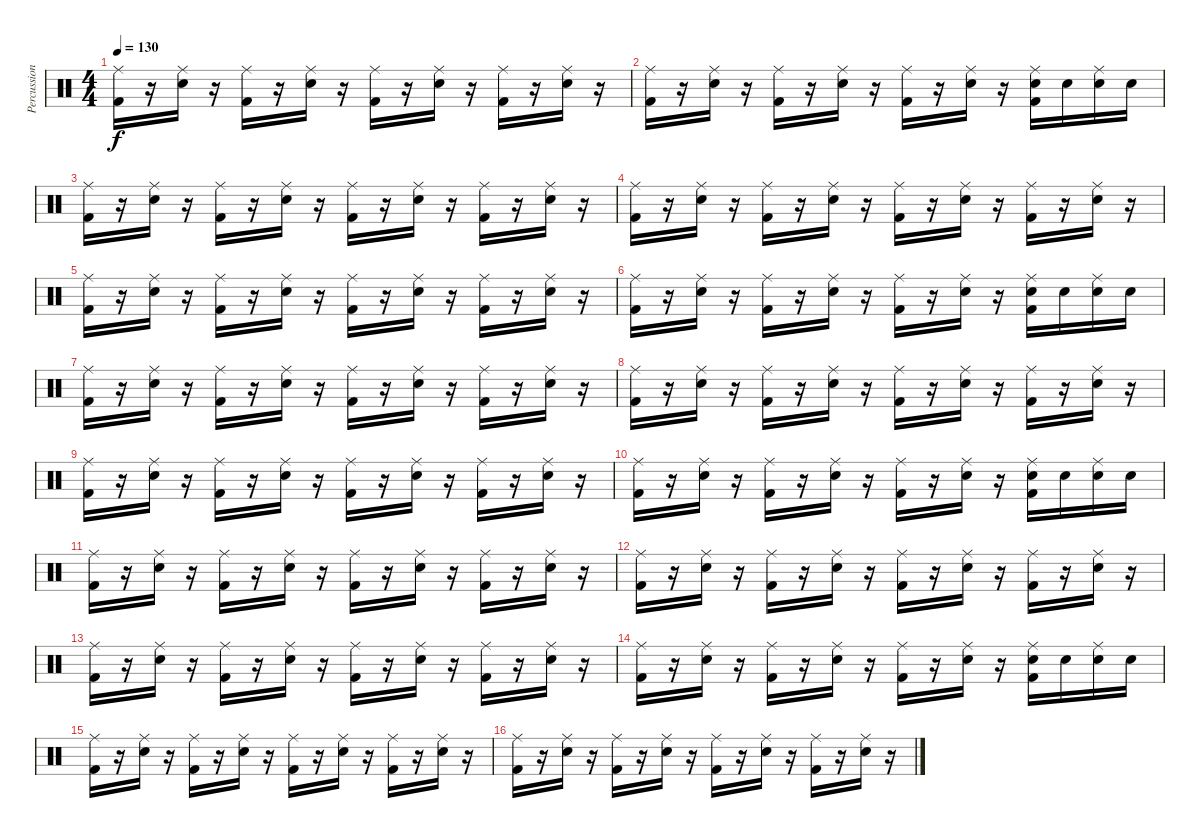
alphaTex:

\track ("Percussion" "Percussion") {instrument percussion}
\staff {score}
\articulation defaults
\ts (4 4)
\tempo 130
\clef neutral
\ks c
("Kick (hit) 2" "Ride (middle)").16{dy f} r.16 ("Snare (hit) 2" "Ride (middle)").16 r.16 ("Kick (hit) 2" "Ride (middle)").16 r.16 ("Snare (hit) 2" "Ride (middle)").16 r.16 ("Kick (hit) 2" "Ride (middle)").16 r.16 ("Snare (hit) 2" "Ride (middle)").16 r.16 ("Kick (hit) 2" "Ride (middle)").16 r.16 ("Snare (hit) 2" "Ride (middle)").16 r.16 |
("Kick (hit) 2" "Ride (middle)").16 r.16 ("Snare (hit) 2" "Ride (middle)").16 r.16 ("Kick (hit) 2" "Ride (middle)").16 r.16 ("Snare (hit) 2" "Ride (middle)").16 r.16 ("Kick (hit) 2" "Ride (middle)").16 r.16 ("Snare (hit) 2" "Ride (middle)").16 r.16 ("Kick (hit) 2" "Snare (hit) 2" "Ride (middle)").16 "Snare (hit) 2".16 ("Snare (hit) 2" "Ride (middle)").16 "Snare (hit) 2".16 |
("Kick (hit) 2" "Ride (middle)").16 r.16 ("Snare (hit) 2" "Ride (middle)").16 r.16 ("Kick (hit) 2" "Ride (middle)").16 r.16 ("Snare (hit) 2" "Ride (middle)").16 r.16 ("Kick (hit) 2" "Ride (middle)").16 r.16 ("Snare (hit) 2" "Ride (middle)").16 r.16 ("Kick (hit) 2" "Ride (middle)").16 r.16 ("Snare (hit) 2" "Ride (middle)").16 r.16 |
("Kick (hit) 2" "Ride (middle)").16 r.16 ("Snare (hit) 2" "Ride (middle)").16 r.16 ("Kick (hit) 2" "Ride (middle)").16 r.16 ("Snare (hit) 2" "Ride (middle)").16 r.16 ("Kick (hit) 2" "Ride (middle)").16 r.16 ("Snare (hit) 2" "Ride (middle)").16 r.16 ("Kick (hit) 2" "Ride (middle)").16 r.16 ("Snare (hit) 2" "Ride (middle)").16 r.16 |
("Kick (hit) 2" "Ride (middle)").16 r.16 ("Snare (hit) 2" "Ride (middle)").16 r.16 ("Kick (hit) 2" "Ride (middle)").16 r.16 ("Snare (hit) 2" "Ride (middle)").16 r.16 ("Kick (hit) 2" "Ride (middle)").16 r.16 ("Snare (hit) 2" "Ride (middle)").16 r.16 ("Kick (hit) 2" "Ride (middle)").16 r.16 ("Snare (hit) 2" "Ride (middle)").16 r.16 |
("Kick (hit) 2" "Ride (middle)").16 r.16 ("Snare (hit) 2" "Ride (middle)").16 r.16 ("Kick (hit) 2" "Ride (middle)").16 r.16 ("Snare (hit) 2" "Ride (middle)").16 r.16 ("Kick (hit) 2" "Ride (middle)").16 r.16 ("Snare (hit) 2" "Ride (middle)").16 r.16 ("Kick (hit) 2" "Snare (hit) 2" "Ride (middle)").16 "Snare (hit) 2".16 ("Snare (hit) 2" "Ride (middle)").16 "Snare (hit) 2".16 |
("Kick (hit) 2" "Ride (middle)").16 r.16 ("Snare (hit) 2" "Ride (middle)").16 r.16 ("Kick (hit) 2" "Ride (middle)").16 r.16 ("Snare (hit) 2" "Ride (middle)").16 r.16 ("Kick (hit) 2" "Ride (middle)").16 r.16 ("Snare (hit) 2" "Ride (middle)").16 r.16 ("Kick (hit) 2" "Ride (middle)").16 r.16 ("Snare (hit) 2" "Ride (middle)").16 r.16 |
("Kick (hit) 2" "Ride (middle)").16 r.16 ("Snare (hit) 2" "Ride (middle)").16 r.16 ("Kick (hit) 2" "Ride (middle)").16 r.16 ("Snare (hit) 2" "Ride (middle)").16 r.16 ("Kick (hit) 2" "Ride (middle)").16 r.16 ("Snare (hit) 2" "Ride (middle)").16 r.16 ("Kick (hit) 2" "Ride (middle)").16 r.16 ("Snare (hit) 2" "Ride (middle)").16 r.16 |
("Kick (hit) 2" "Ride (middle)").16 r.16 ("Snare (hit) 2" "Ride (middle)").16 r.16 ("Kick (hit) 2" "Ride (middle)").16 r.16 ("Snare (hit) 2" "Ride (middle)").16 r.16 ("Kick (hit) 2" "Ride (middle)").16 r.16 ("Snare (hit) 2" "Ride (middle)").16 r.16 ("Kick (hit) 2" "Ride (middle)").16 r.16 ("Snare (hit) 2" "Ride (middle)").16 r.16 |
("Kick (hit) 2" "Ride (middle)").16 r.16 ("Snare (hit) 2" "Ride (middle)").16 r.16 ("Kick (hit) 2" "Ride (middle)").16 r.16 ("Snare (hit) 2" "Ride (middle)").16 r.16 ("Kick (hit) 2" "Ride (middle)").16 r.16 ("Snare (hit) 2" "Ride (middle)").16 r.16 ("Kick (hit) 2" "Snare (hit) 2" "Ride (middle)").16 "Snare (hit) 2".16 ("Snare (hit) 2" "Ride (middle)").16 "Snare (hit) 2".16 |
("Kick (hit) 2" "Ride (middle)").16 r.16 ("Snare (hit) 2" "Ride (middle)").16 r.16 ("Kick (hit) 2" "Ride (middle)").16 r.16 ("Snare (hit) 2" "Ride (middle)").16 r.16 ("Kick (hit) 2" "Ride (middle)").16 r.16 ("Snare (hit) 2" "Ride (middle)").16 r.16 ("Kick (hit) 2" "Ride (middle)").16 r.16 ("Snare (hit) 2" "Ride (middle)").16 r.16 |
("Kick (hit) 2" "Ride (middle)").16 r.16 ("Snare (hit) 2" "Ride (middle)").16 r.16 ("Kick (hit) 2" "Ride (middle)").16 r.16 ("Snare (hit) 2" "Ride (middle)").16 r.16 ("Kick (hit) 2" "Ride (middle)").16 r.16 ("Snare (hit) 2" "Ride (middle)").16 r.16 ("Kick (hit) 2" "Ride (middle)").16 r.16 ("Snare (hit) 2" "Ride (middle)").16 r.16 |
("Kick (hit) 2" "Ride (middle)").16 r.16 ("Snare (hit) 2" "Ride (middle)").16 r.16 ("Kick (hit) 2" "Ride (middle)").16 r.16 ("Snare (hit) 2" "Ride (middle)").16 r.16 ("Kick (hit) 2" "Ride (middle)").16 r.16 ("Snare (hit) 2" "Ride (middle)").16 r.16 ("Kick (hit) 2" "Ride (middle)").16 r.16 ("Snare (hit) 2" "Ride (middle)").16 r.16 |
("Kick (hit) 2" "Ride (middle)").16 r.16 ("Snare (hit) 2" "Ride (middle)").16 r.16 ("Kick (hit) 2" "Ride (middle)").16 r.16 ("Snare (hit) 2" "Ride (middle)").16 r.16 ("Kick (hit) 2" "Ride (middle)").16 r.16 ("Snare (hit) 2" "Ride (middle)").16 r.16 ("Kick (hit) 2" "Snare (hit) 2" "Ride (middle)").16 "Snare (hit) 2".16 ("Snare (hit) 2" "Ride (middle)").16 "Snare (hit) 2".16 |
("Kick (hit) 2" "Ride (middle)").16 r.16 ("Snare (hit) 2" "Ride (middle)").16 r.16 ("Kick (hit) 2" "Ride (middle)").16 r.16 ("Snare (hit) 2" "Ride (middle)").16 r.16 ("Kick (hit) 2" "Ride (middle)").16 r.16 ("Snare (hit) 2" "Ride (middle)").16 r.16 ("Kick (hit) 2" "Ride (middle)").16 r.16 ("Snare (hit) 2" "Ride (middle)").16 r.16 |
("Kick (hit) 2" "Ride (middle)").16 r.16 ("Snare (hit) 2" "Ride (middle)").16 r.16 ("Kick (hit) 2" "Ride (middle)").16 r.16 ("Snare (hit) 2" "Ride (middle)").16 r.16 ("Kick (hit) 2" "Ride (middle)").16 r.16 ("Snare (hit) 2" "Ride (middle)").16 r.16 ("Kick (hit) 2" "Ride (middle)").16 r.16 ("Snare (hit) 2" "Ride (middle)").16 r.16
